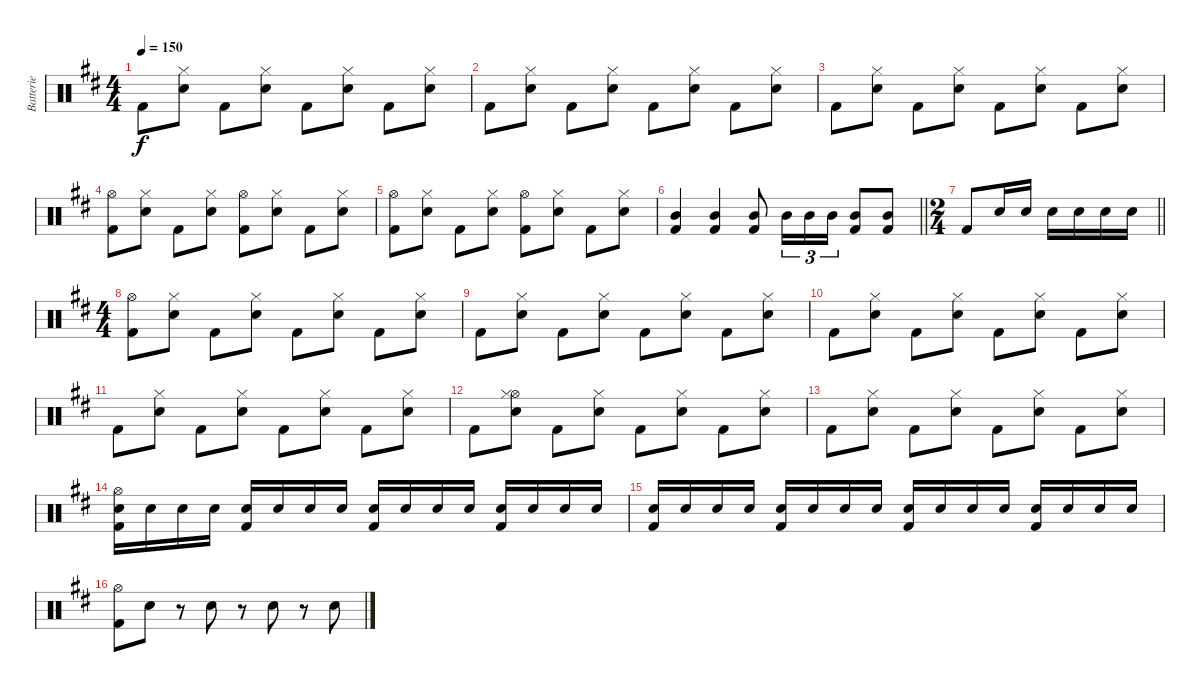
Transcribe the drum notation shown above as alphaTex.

\track ("Batterie" "Batterie") {instrument percussion}
\staff {score}
\articulation defaults
\ts (4 4)
\tempo 150
\clef neutral
\ks d "Kick (hit) 2".8{dy f}
("Hi-Hat (closed)" "Snare (hit) 2").8 "Kick (hit) 2".8 ("Hi-Hat (closed)" "Snare (hit) 2").8 "Kick (hit) 2".8 ("Hi-Hat (closed)" "Snare (hit) 2").8 "Kick (hit) 2".8 ("Hi-Hat (closed)" "Snare (hit) 2").8 |
"Kick (hit) 2".8 ("Hi-Hat (closed)" "Snare (hit) 2").8 "Kick (hit) 2".8 ("Hi-Hat (closed)" "Snare (hit) 2").8 "Kick (hit) 2".8 ("Hi-Hat (closed)" "Snare (hit) 2").8 "Kick (hit) 2".8 ("Hi-Hat (closed)" "Snare (hit) 2").8 |
"Kick (hit) 2".8 ("Hi-Hat (closed)" "Snare (hit) 2").8 "Kick (hit) 2".8 ("Hi-Hat (closed)" "Snare (hit) 2").8 "Kick (hit) 2".8 ("Hi-Hat (closed)" "Snare (hit) 2").8 "Kick (hit) 2".8 ("Hi-Hat (closed)" "Snare (hit) 2").8 |
("Hi-Hat (open)" "Kick (hit) 2").8 ("Hi-Hat (closed)" "Snare (hit) 2").8 "Kick (hit) 2".8 ("Hi-Hat (closed)" "Snare (hit) 2").8 ("Hi-Hat (open)" "Kick (hit) 2").8 ("Hi-Hat (closed)" "Snare (hit) 2").8 "Kick (hit) 2".8 ("Hi-Hat (closed)" "Snare (hit) 2").8 |
("Hi-Hat (open)" "Kick (hit) 2").8 ("Hi-Hat (closed)" "Snare (hit) 2").8 "Kick (hit) 2".8 ("Hi-Hat (closed)" "Snare (hit) 2").8 ("Hi-Hat (open)" "Kick (hit) 2").8 ("Hi-Hat (closed)" "Snare (hit) 2").8 "Kick (hit) 2".8 ("Hi-Hat (closed)" "Snare (hit) 2").8 |
\barLineRight lightlight
("Mid Tom (hit)" "Kick (hit) 2").4 ("Mid Tom (hit)" "Kick (hit) 2").4 ("Mid Tom (hit)" "Kick (hit) 2").8 "Mid Tom (hit)".16{tu (3 2)} "Mid Tom (hit)".16{tu (3 2)} "Mid Tom (hit)".16{tu (3 2)} ("Mid Tom (hit)" "Kick (hit) 2").8 ("Mid Tom (hit)" "Kick (hit) 2").8 |
\ts (2 4)
\barLineRight lightlight "Kick (hit) 2".8 "Snare (hit) 2".16 "Snare (hit) 2".16 "Snare (hit) 2".16 "Snare (hit) 2".16 "Snare (hit) 2".16 "Snare (hit) 2".16
|
\ts (4 4)
("Hi-Hat (open)" "Kick (hit) 2").8 ("Hi-Hat (closed)" "Snare (hit) 2").8 "Kick (hit) 2".8 ("Hi-Hat (closed)" "Snare (hit) 2").8 "Kick (hit) 2".8 ("Hi-Hat (closed)" "Snare (hit) 2").8 "Kick (hit) 2".8 ("Hi-Hat (closed)" "Snare (hit) 2").8 |
"Kick (hit) 2".8 ("Hi-Hat (closed)" "Snare (hit) 2").8 "Kick (hit) 2".8 ("Hi-Hat (closed)" "Snare (hit) 2").8 "Kick (hit) 2".8 ("Hi-Hat (closed)" "Snare (hit) 2").8 "Kick (hit) 2".8 ("Hi-Hat (closed)" "Snare (hit) 2").8 |
"Kick (hit) 2".8 ("Hi-Hat (closed)" "Snare (hit) 2").8 "Kick (hit) 2".8 ("Hi-Hat (closed)" "Snare (hit) 2").8 "Kick (hit) 2".8 ("Hi-Hat (closed)" "Snare (hit) 2").8 "Kick (hit) 2".8 ("Hi-Hat (closed)" "Snare (hit) 2").8 |
"Kick (hit) 2".8 ("Hi-Hat (closed)" "Snare (hit) 2").8 "Kick (hit) 2".8 ("Hi-Hat (closed)" "Snare (hit) 2").8 "Kick (hit) 2".8 ("Hi-Hat (closed)" "Snare (hit) 2").8 "Kick (hit) 2".8 ("Hi-Hat (closed)" "Snare (hit) 2").8 |
"Kick (hit) 2".8 ("Hi-Hat (open)" "Hi-Hat (closed)" "Snare (hit) 2").8 "Kick (hit) 2".8 ("Hi-Hat (closed)" "Snare (hit) 2").8 "Kick (hit) 2".8 ("Hi-Hat (closed)" "Snare (hit) 2").8 "Kick (hit) 2".8 ("Hi-Hat (closed)" "Snare (hit) 2").8 |
"Kick (hit) 2".8 ("Hi-Hat (closed)" "Snare (hit) 2").8 "Kick (hit) 2".8 ("Hi-Hat (closed)" "Snare (hit) 2").8 "Kick (hit) 2".8 ("Hi-Hat (closed)" "Snare (hit) 2").8 "Kick (hit) 2".8 ("Hi-Hat (closed)" "Snare (hit) 2").8 |
("Hi-Hat (open)" "Snare (hit) 2" "Kick (hit) 2").16 "Snare (hit) 2".16 "Snare (hit) 2".16 "Snare (hit) 2".16 ("Snare (hit) 2" "Kick (hit) 2").16 "Snare (hit) 2".16 "Snare (hit) 2".16 "Snare (hit) 2".16 ("Snare (hit) 2" "Kick (hit) 2").16 "Snare (hit) 2".16 "Snare (hit) 2".16 "Snare (hit) 2".16 ("Snare (hit) 2" "Kick (hit) 2").16 "Snare (hit) 2".16 "Snare (hit) 2".16 "Snare (hit) 2".16 |
("Snare (hit) 2" "Kick (hit) 2").16 "Snare (hit) 2".16 "Snare (hit) 2".16 "Snare (hit) 2".16 ("Snare (hit) 2" "Kick (hit) 2").16 "Snare (hit) 2".16 "Snare (hit) 2".16 "Snare (hit) 2".16 ("Snare (hit) 2" "Kick (hit) 2").16 "Snare (hit) 2".16 "Snare (hit) 2".16 "Snare (hit) 2".16 ("Snare (hit) 2" "Kick (hit) 2").16 "Snare (hit) 2".16 "Snare (hit) 2".16 "Snare (hit) 2".16 |
("Hi-Hat (open)" "Kick (hit) 2").8 "Snare (hit) 2".8 r.8 "Snare (hit) 2".8 r.8 "Snare (hit) 2".8 r.8 "Snare (hit) 2".8
